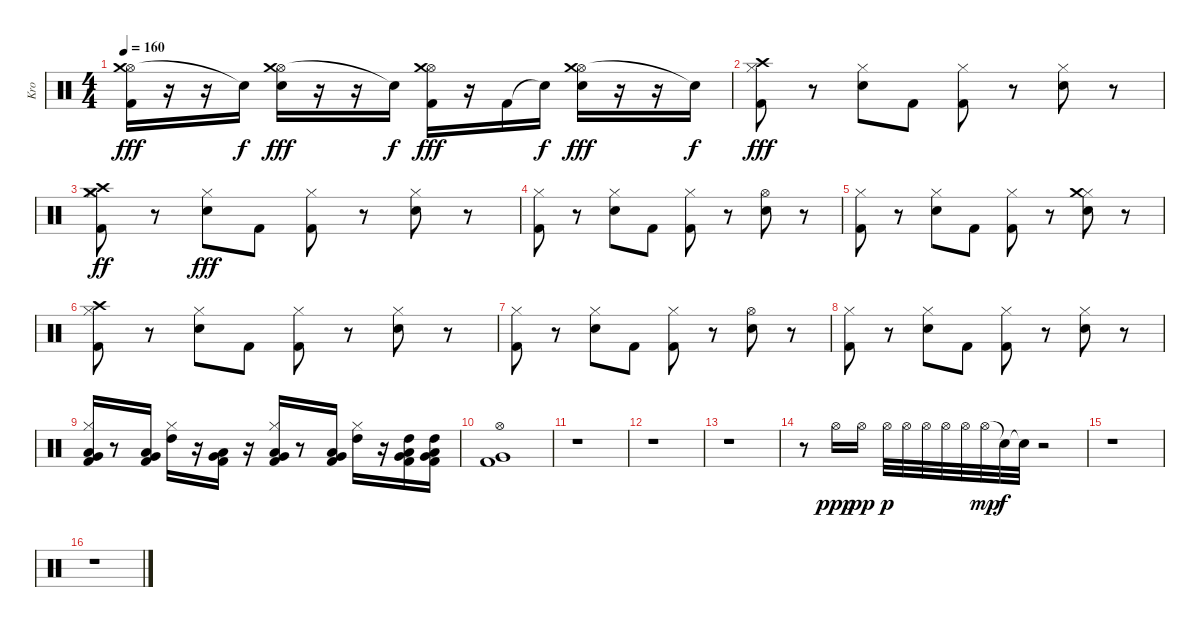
\track ("Kro" "Kro") {instrument percussion}
\staff {score}
\articulation defaults
\ts (4 4)
\tempo 160
\clef neutral
\ks c
("Hi-Hat (open)" "Kick (hit) 2" "Crash medium (hit)").16{dy fff} r.16 r.16 "Snare (hit)"{t}.16{dy f} ("Hi-Hat (open)" "Snare (hit) 2" "Crash medium (hit)").16{dy fff} r.16 r.16 "Snare (hit)"{t}.16{dy f} ("Hi-Hat (open)" "Kick (hit) 2" "Crash medium (hit)").16{dy fff} r.16 "Kick (hit) 2".16 "Snare (hit)"{t}.16{dy f} ("Hi-Hat (open)" "Snare (hit) 2" "Crash medium (hit)").16{dy fff} r.16 r.16 "Snare (hit)"{t}.16{dy f} |
("Hi-Hat (closed)" "Kick (hit) 2" "Crash high (hit)").8{dy fff} r.8 ("Hi-Hat (closed)" "Snare (hit) 2").8 "Kick (hit) 2".8 ("Hi-Hat (closed)" "Kick (hit) 2").8 r.8 ("Hi-Hat (closed)" "Snare (hit) 2").8 r.8 |
("Hi-Hat (closed)" "Kick (hit) 2" "Crash medium (hit)" "Crash high (hit)").8{dy ff} r.8 ("Hi-Hat (closed)" "Snare (hit) 2").8{dy fff} "Kick (hit) 2".8 ("Hi-Hat (closed)" "Kick (hit) 2").8 r.8 ("Hi-Hat (closed)" "Snare (hit) 2").8 r.8 |
("Hi-Hat (closed)" "Kick (hit) 2").8 r.8 ("Hi-Hat (closed)" "Snare (hit) 2").8 "Kick (hit) 2".8 ("Hi-Hat (closed)" "Kick (hit) 2").8 r.8 ("Hi-Hat (open)" "Snare (hit) 2").8 r.8 |
("Hi-Hat (closed)" "Kick (hit) 2").8 r.8 ("Hi-Hat (closed)" "Snare (hit) 2").8 "Kick (hit) 2".8 ("Hi-Hat (closed)" "Kick (hit) 2").8 r.8 ("Hi-Hat (closed)" "Snare (hit) 2" "Crash medium (hit)").8 r.8 |
("Hi-Hat (closed)" "Kick (hit) 2" "Crash high (hit)").8 r.8 ("Hi-Hat (closed)" "Snare (hit) 2").8 "Kick (hit) 2".8 ("Hi-Hat (closed)" "Kick (hit) 2").8 r.8 ("Hi-Hat (closed)" "Snare (hit) 2").8 r.8 |
("Hi-Hat (closed)" "Kick (hit) 2").8 r.8 ("Hi-Hat (closed)" "Snare (hit) 2").8 "Kick (hit) 2".8 ("Hi-Hat (closed)" "Kick (hit) 2").8 r.8 ("Snare (hit) 2" "Hi-Hat (open)").8 r.8 |
("Hi-Hat (closed)" "Kick (hit) 2").8 r.8 ("Hi-Hat (closed)" "Snare (hit) 2").8 "Kick (hit) 2".8 ("Hi-Hat (closed)" "Kick (hit) 2").8 r.8 ("Hi-Hat (closed)" "Snare (hit) 2").8 r.8 |
("Hi-Hat (closed)" "Low Tom (hit)" "Kick (hit) 2" "Very Low Tom (hit)").16 r.8 ("Low Tom (hit)" "Kick (hit) 2" "Very Low Tom (hit)").16 ("Hi-Hat (closed)" "High Tom (hit)").16 r.16 ("Low Tom (hit)" "Kick (hit) 2" "Very Low Tom (hit)").16 r.16 ("Hi-Hat (closed)" "Low Tom (hit)" "Kick (hit) 2" "Very Low Tom (hit)").16 r.8 ("Low Tom (hit)" "Kick (hit) 2" "Very Low Tom (hit)").16 ("Hi-Hat (closed)" "High Tom (hit)").16 r.16 ("Kick (hit) 2" "Low Tom (hit)" "Very Low Tom (hit)" "High Tom (hit)").16 ("Kick (hit) 2" "Low Tom (hit)" "Very Low Tom (hit)" "High Tom (hit)").16 |
("Hi-Hat (open)" "Very Low Tom (hit)" "Kick (hit) 2").1 |
r.1 |
r.1 |
r.1 |
r.8 "Hi-Hat (open)".16{dy ppp} "Hi-Hat (open)".16{dy pp} "Hi-Hat (open)".32{dy p} "Hi-Hat (open)".32 "Hi-Hat (open)".32 "Hi-Hat (open)".32 "Hi-Hat (open)".32 "Hi-Hat (open)".32{dy mp} "Snare (hit)"{t}.32{dy f} "Snare (hit)"{t}.32 r.2 |
r.1 |
r.1
